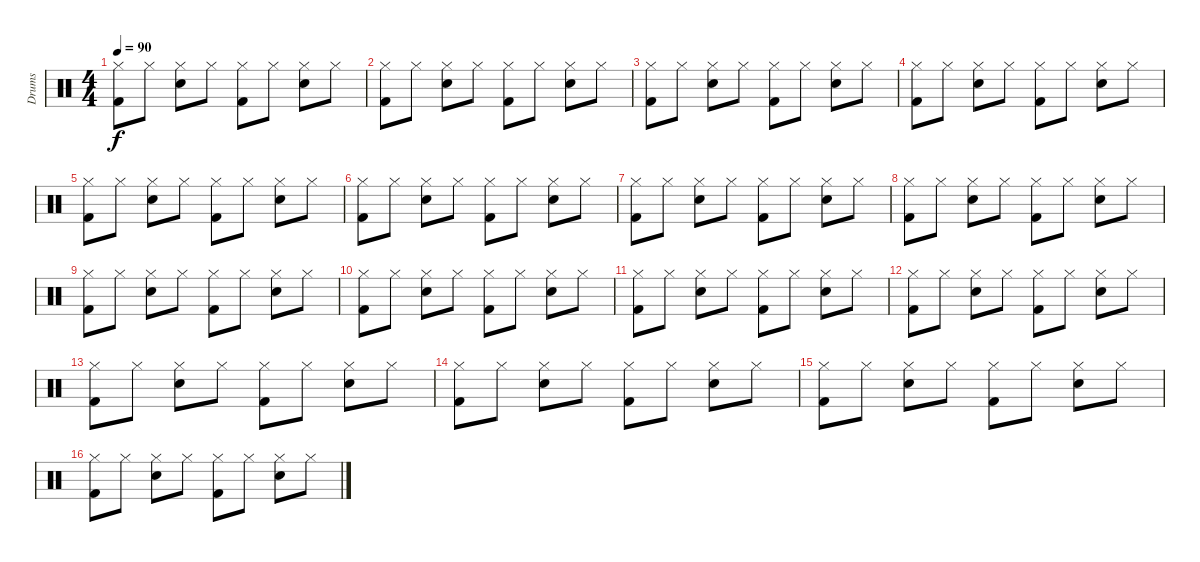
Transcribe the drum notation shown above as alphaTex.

\track ("Drums" "Drums") {instrument percussion}
\staff {score}
\articulation defaults
\ts (4 4)
\tempo 90
\clef neutral
\ks c
("Hi-Hat (closed)" "Kick (hit) 2").8{dy f} "Hi-Hat (closed)".8 ("Hi-Hat (closed)" "Snare (hit) 2").8 "Hi-Hat (closed)".8 ("Hi-Hat (closed)" "Kick (hit) 2").8 "Hi-Hat (closed)".8 ("Hi-Hat (closed)" "Snare (hit) 2").8 "Hi-Hat (closed)".8 |
("Hi-Hat (closed)" "Kick (hit) 2").8 "Hi-Hat (closed)".8 ("Hi-Hat (closed)" "Snare (hit) 2").8 "Hi-Hat (closed)".8 ("Hi-Hat (closed)" "Kick (hit) 2").8 "Hi-Hat (closed)".8 ("Hi-Hat (closed)" "Snare (hit) 2").8 "Hi-Hat (closed)".8 |
("Hi-Hat (closed)" "Kick (hit) 2").8 "Hi-Hat (closed)".8 ("Hi-Hat (closed)" "Snare (hit) 2").8 "Hi-Hat (closed)".8 ("Hi-Hat (closed)" "Kick (hit) 2").8 "Hi-Hat (closed)".8 ("Hi-Hat (closed)" "Snare (hit) 2").8 "Hi-Hat (closed)".8 |
("Hi-Hat (closed)" "Kick (hit) 2").8 "Hi-Hat (closed)".8 ("Hi-Hat (closed)" "Snare (hit) 2").8 "Hi-Hat (closed)".8 ("Hi-Hat (closed)" "Kick (hit) 2").8 "Hi-Hat (closed)".8 ("Hi-Hat (closed)" "Snare (hit) 2").8 "Hi-Hat (closed)".8 |
("Hi-Hat (closed)" "Kick (hit) 2").8 "Hi-Hat (closed)".8 ("Hi-Hat (closed)" "Snare (hit) 2").8 "Hi-Hat (closed)".8 ("Hi-Hat (closed)" "Kick (hit) 2").8 "Hi-Hat (closed)".8 ("Hi-Hat (closed)" "Snare (hit) 2").8 "Hi-Hat (closed)".8 |
("Hi-Hat (closed)" "Kick (hit) 2").8 "Hi-Hat (closed)".8 ("Hi-Hat (closed)" "Snare (hit) 2").8 "Hi-Hat (closed)".8 ("Hi-Hat (closed)" "Kick (hit) 2").8 "Hi-Hat (closed)".8 ("Hi-Hat (closed)" "Snare (hit) 2").8 "Hi-Hat (closed)".8 |
("Hi-Hat (closed)" "Kick (hit) 2").8 "Hi-Hat (closed)".8 ("Hi-Hat (closed)" "Snare (hit) 2").8 "Hi-Hat (closed)".8 ("Hi-Hat (closed)" "Kick (hit) 2").8 "Hi-Hat (closed)".8 ("Hi-Hat (closed)" "Snare (hit) 2").8 "Hi-Hat (closed)".8 |
("Hi-Hat (closed)" "Kick (hit) 2").8 "Hi-Hat (closed)".8 ("Hi-Hat (closed)" "Snare (hit) 2").8 "Hi-Hat (closed)".8 ("Hi-Hat (closed)" "Kick (hit) 2").8 "Hi-Hat (closed)".8 ("Hi-Hat (closed)" "Snare (hit) 2").8 "Hi-Hat (closed)".8 |
("Hi-Hat (closed)" "Kick (hit) 2").8 "Hi-Hat (closed)".8 ("Hi-Hat (closed)" "Snare (hit) 2").8 "Hi-Hat (closed)".8 ("Hi-Hat (closed)" "Kick (hit) 2").8 "Hi-Hat (closed)".8 ("Hi-Hat (closed)" "Snare (hit) 2").8 "Hi-Hat (closed)".8 |
("Hi-Hat (closed)" "Kick (hit) 2").8 "Hi-Hat (closed)".8 ("Hi-Hat (closed)" "Snare (hit) 2").8 "Hi-Hat (closed)".8 ("Hi-Hat (closed)" "Kick (hit) 2").8 "Hi-Hat (closed)".8 ("Hi-Hat (closed)" "Snare (hit) 2").8 "Hi-Hat (closed)".8 |
("Hi-Hat (closed)" "Kick (hit) 2").8 "Hi-Hat (closed)".8 ("Hi-Hat (closed)" "Snare (hit) 2").8 "Hi-Hat (closed)".8 ("Hi-Hat (closed)" "Kick (hit) 2").8 "Hi-Hat (closed)".8 ("Hi-Hat (closed)" "Snare (hit) 2").8 "Hi-Hat (closed)".8 |
("Hi-Hat (closed)" "Kick (hit) 2").8 "Hi-Hat (closed)".8 ("Hi-Hat (closed)" "Snare (hit) 2").8 "Hi-Hat (closed)".8 ("Hi-Hat (closed)" "Kick (hit) 2").8 "Hi-Hat (closed)".8 ("Hi-Hat (closed)" "Snare (hit) 2").8 "Hi-Hat (closed)".8 |
("Hi-Hat (closed)" "Kick (hit) 2").8 "Hi-Hat (closed)".8 ("Hi-Hat (closed)" "Snare (hit) 2").8 "Hi-Hat (closed)".8 ("Hi-Hat (closed)" "Kick (hit) 2").8 "Hi-Hat (closed)".8 ("Hi-Hat (closed)" "Snare (hit) 2").8 "Hi-Hat (closed)".8 |
("Hi-Hat (closed)" "Kick (hit) 2").8 "Hi-Hat (closed)".8 ("Hi-Hat (closed)" "Snare (hit) 2").8 "Hi-Hat (closed)".8 ("Hi-Hat (closed)" "Kick (hit) 2").8 "Hi-Hat (closed)".8 ("Hi-Hat (closed)" "Snare (hit) 2").8 "Hi-Hat (closed)".8 |
("Hi-Hat (closed)" "Kick (hit) 2").8 "Hi-Hat (closed)".8 ("Hi-Hat (closed)" "Snare (hit) 2").8 "Hi-Hat (closed)".8 ("Hi-Hat (closed)" "Kick (hit) 2").8 "Hi-Hat (closed)".8 ("Hi-Hat (closed)" "Snare (hit) 2").8 "Hi-Hat (closed)".8 |
("Hi-Hat (closed)" "Kick (hit) 2").8 "Hi-Hat (closed)".8 ("Hi-Hat (closed)" "Snare (hit) 2").8 "Hi-Hat (closed)".8 ("Hi-Hat (closed)" "Kick (hit) 2").8 "Hi-Hat (closed)".8 ("Hi-Hat (closed)" "Snare (hit) 2").8 "Hi-Hat (closed)".8
